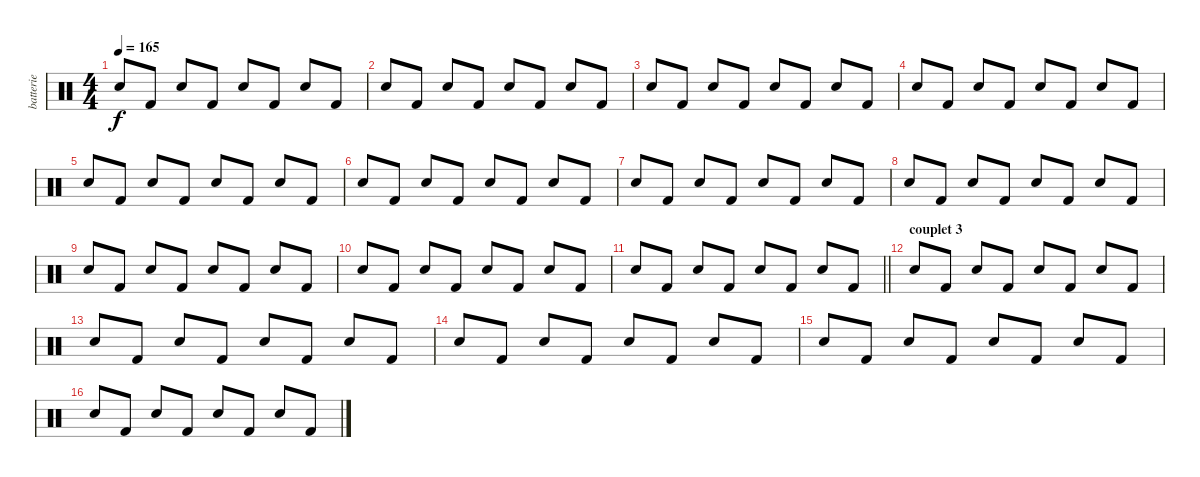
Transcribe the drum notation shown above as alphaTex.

\track ("batterie" "batterie") {instrument percussion}
\staff {score}
\articulation defaults
\ts (4 4)
\tempo 165
\clef neutral
\ks c "Snare (hit) 2".8{dy f} "Kick (hit) 2".8 "Snare (hit) 2".8 "Kick (hit) 2".8 "Snare (hit) 2".8 "Kick (hit) 2".8 "Snare (hit) 2".8 "Kick (hit) 2".8
|
"Snare (hit) 2".8 "Kick (hit) 2".8 "Snare (hit) 2".8 "Kick (hit) 2".8 "Snare (hit) 2".8 "Kick (hit) 2".8 "Snare (hit) 2".8 "Kick (hit) 2".8 |
"Snare (hit) 2".8 "Kick (hit) 2".8 "Snare (hit) 2".8 "Kick (hit) 2".8 "Snare (hit) 2".8 "Kick (hit) 2".8 "Snare (hit) 2".8 "Kick (hit) 2".8 |
"Snare (hit) 2".8 "Kick (hit) 2".8 "Snare (hit) 2".8 "Kick (hit) 2".8 "Snare (hit) 2".8 "Kick (hit) 2".8 "Snare (hit) 2".8 "Kick (hit) 2".8 |
"Snare (hit) 2".8 "Kick (hit) 2".8 "Snare (hit) 2".8 "Kick (hit) 2".8 "Snare (hit) 2".8 "Kick (hit) 2".8 "Snare (hit) 2".8 "Kick (hit) 2".8 |
"Snare (hit) 2".8 "Kick (hit) 2".8 "Snare (hit) 2".8 "Kick (hit) 2".8 "Snare (hit) 2".8 "Kick (hit) 2".8 "Snare (hit) 2".8 "Kick (hit) 2".8 |
"Snare (hit) 2".8 "Kick (hit) 2".8 "Snare (hit) 2".8 "Kick (hit) 2".8 "Snare (hit) 2".8 "Kick (hit) 2".8 "Snare (hit) 2".8 "Kick (hit) 2".8 |
"Snare (hit) 2".8 "Kick (hit) 2".8 "Snare (hit) 2".8 "Kick (hit) 2".8 "Snare (hit) 2".8 "Kick (hit) 2".8 "Snare (hit) 2".8 "Kick (hit) 2".8 |
"Snare (hit) 2".8 "Kick (hit) 2".8 "Snare (hit) 2".8 "Kick (hit) 2".8 "Snare (hit) 2".8 "Kick (hit) 2".8 "Snare (hit) 2".8 "Kick (hit) 2".8 |
"Snare (hit) 2".8 "Kick (hit) 2".8 "Snare (hit) 2".8 "Kick (hit) 2".8 "Snare (hit) 2".8 "Kick (hit) 2".8 "Snare (hit) 2".8 "Kick (hit) 2".8 |
\barLineRight lightlight "Snare (hit) 2".8 "Kick (hit) 2".8 "Snare (hit) 2".8 "Kick (hit) 2".8 "Snare (hit) 2".8 "Kick (hit) 2".8 "Snare (hit) 2".8 "Kick (hit) 2".8
|
\section ("" "couplet 3")
"Snare (hit) 2".8 "Kick (hit) 2".8 "Snare (hit) 2".8 "Kick (hit) 2".8 "Snare (hit) 2".8 "Kick (hit) 2".8 "Snare (hit) 2".8 "Kick (hit) 2".8 |
"Snare (hit) 2".8 "Kick (hit) 2".8 "Snare (hit) 2".8 "Kick (hit) 2".8 "Snare (hit) 2".8 "Kick (hit) 2".8 "Snare (hit) 2".8 "Kick (hit) 2".8 |
"Snare (hit) 2".8 "Kick (hit) 2".8 "Snare (hit) 2".8 "Kick (hit) 2".8 "Snare (hit) 2".8 "Kick (hit) 2".8 "Snare (hit) 2".8 "Kick (hit) 2".8 |
"Snare (hit) 2".8 "Kick (hit) 2".8 "Snare (hit) 2".8 "Kick (hit) 2".8 "Snare (hit) 2".8 "Kick (hit) 2".8 "Snare (hit) 2".8 "Kick (hit) 2".8 |
"Snare (hit) 2".8 "Kick (hit) 2".8 "Snare (hit) 2".8 "Kick (hit) 2".8 "Snare (hit) 2".8 "Kick (hit) 2".8 "Snare (hit) 2".8 "Kick (hit) 2".8
